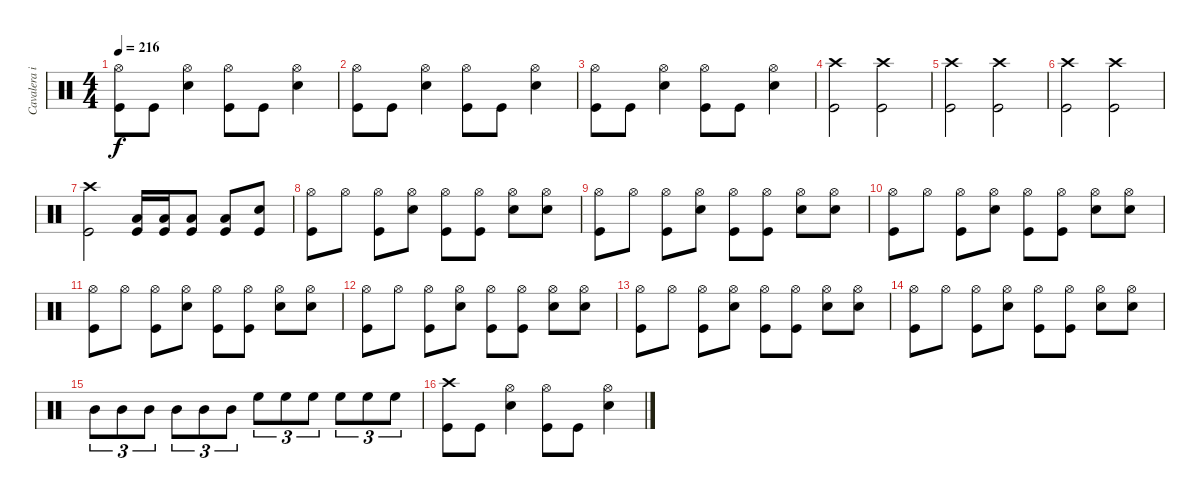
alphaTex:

\track ("Cavalera igor" "Cavalera i") {instrument percussion}
\staff {score}
\articulation defaults
\ts (4 4)
\tempo 216
\clef neutral
\ks c
("Hi-Hat (open)" "Kick (hit)").8{dy f} "Kick (hit)".8 ("Hi-Hat (open)" "Electric Snare (hit)").4 ("Hi-Hat (open)" "Kick (hit)").8 "Kick (hit)".8 ("Hi-Hat (open)" "Electric Snare (hit)").4 |
("Hi-Hat (open)" "Kick (hit)").8 "Kick (hit)".8 ("Hi-Hat (open)" "Electric Snare (hit)").4 ("Hi-Hat (open)" "Kick (hit)").8 "Kick (hit)".8 ("Hi-Hat (open)" "Electric Snare (hit)").4 |
("Hi-Hat (open)" "Kick (hit)").8 "Kick (hit)".8 ("Hi-Hat (open)" "Electric Snare (hit)").4 ("Hi-Hat (open)" "Kick (hit)").8 "Kick (hit)".8 ("Hi-Hat (open)" "Electric Snare (hit)").4 |
("Crash high (hit)" "Kick (hit)").2 ("Crash high (hit)" "Kick (hit)").2 |
("Crash high (hit)" "Kick (hit)").2 ("Crash high (hit)" "Kick (hit)").2 |
("Crash high (hit)" "Kick (hit)").2 ("Crash high (hit)" "Kick (hit)").2 |
("Crash high (hit)" "Kick (hit)").2 ("Low Tom (hit)" "Kick (hit)").16 ("Low Tom (hit)" "Kick (hit)").16 ("Low Tom (hit)" "Kick (hit)").8 ("Low Tom (hit)" "Kick (hit)").8 ("Electric Snare (hit)" "Kick (hit)").8 |
("Hi-Hat (open)" "Kick (hit)").8 "Hi-Hat (open)".8 ("Hi-Hat (open)" "Kick (hit)").8 ("Hi-Hat (open)" "Electric Snare (hit)").8 ("Hi-Hat (open)" "Kick (hit)").8 ("Hi-Hat (open)" "Kick (hit)").8 ("Hi-Hat (open)" "Electric Snare (hit)").8 ("Hi-Hat (open)" "Electric Snare (hit)").8 |
("Hi-Hat (open)" "Kick (hit)").8 "Hi-Hat (open)".8 ("Hi-Hat (open)" "Kick (hit)").8 ("Hi-Hat (open)" "Electric Snare (hit)").8 ("Hi-Hat (open)" "Kick (hit)").8 ("Hi-Hat (open)" "Kick (hit)").8 ("Hi-Hat (open)" "Electric Snare (hit)").8 ("Hi-Hat (open)" "Electric Snare (hit)").8 |
("Hi-Hat (open)" "Kick (hit)").8 "Hi-Hat (open)".8 ("Hi-Hat (open)" "Kick (hit)").8 ("Hi-Hat (open)" "Electric Snare (hit)").8 ("Hi-Hat (open)" "Kick (hit)").8 ("Hi-Hat (open)" "Kick (hit)").8 ("Hi-Hat (open)" "Electric Snare (hit)").8 ("Hi-Hat (open)" "Electric Snare (hit)").8 |
("Hi-Hat (open)" "Kick (hit)").8 "Hi-Hat (open)".8 ("Hi-Hat (open)" "Kick (hit)").8 ("Hi-Hat (open)" "Electric Snare (hit)").8 ("Hi-Hat (open)" "Kick (hit)").8 ("Hi-Hat (open)" "Kick (hit)").8 ("Hi-Hat (open)" "Electric Snare (hit)").8 ("Hi-Hat (open)" "Electric Snare (hit)").8 |
("Hi-Hat (open)" "Kick (hit)").8 "Hi-Hat (open)".8 ("Hi-Hat (open)" "Kick (hit)").8 ("Hi-Hat (open)" "Electric Snare (hit)").8 ("Hi-Hat (open)" "Kick (hit)").8 ("Hi-Hat (open)" "Kick (hit)").8 ("Hi-Hat (open)" "Electric Snare (hit)").8 ("Hi-Hat (open)" "Electric Snare (hit)").8 |
("Hi-Hat (open)" "Kick (hit)").8 "Hi-Hat (open)".8 ("Hi-Hat (open)" "Kick (hit)").8 ("Hi-Hat (open)" "Electric Snare (hit)").8 ("Hi-Hat (open)" "Kick (hit)").8 ("Hi-Hat (open)" "Kick (hit)").8 ("Hi-Hat (open)" "Electric Snare (hit)").8 ("Hi-Hat (open)" "Electric Snare (hit)").8 |
("Hi-Hat (open)" "Kick (hit)").8 "Hi-Hat (open)".8 ("Hi-Hat (open)" "Kick (hit)").8 ("Hi-Hat (open)" "Electric Snare (hit)").8 ("Hi-Hat (open)" "Kick (hit)").8 ("Hi-Hat (open)" "Kick (hit)").8 ("Hi-Hat (open)" "Electric Snare (hit)").8 ("Hi-Hat (open)" "Electric Snare (hit)").8 |
"Mid Tom (hit)".8{tu (3 2)} "Mid Tom (hit)".8{tu (3 2)} "Mid Tom (hit)".8{tu (3 2)} "Mid Tom (hit)".8{tu (3 2)} "Mid Tom (hit)".8{tu (3 2)} "Mid Tom (hit)".8{tu (3 2)} "High Floor Tom (hit)".8{tu (3 2)} "High Floor Tom (hit)".8{tu (3 2)} "High Floor Tom (hit)".8{tu (3 2)} "High Floor Tom (hit)".8{tu (3 2)} "High Floor Tom (hit)".8{tu (3 2)} "High Floor Tom (hit)".8{tu (3 2)} |
("Crash high (hit)" "Kick (hit)").8 "Kick (hit)".8 ("Hi-Hat (open)" "Electric Snare (hit)").4 ("Hi-Hat (open)" "Kick (hit)").8 "Kick (hit)".8 ("Hi-Hat (open)" "Electric Snare (hit)").4
